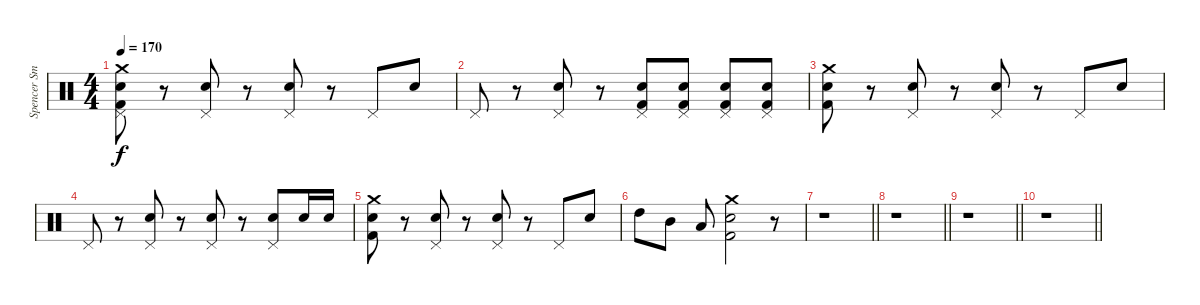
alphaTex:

\track ("Spencer Smith (Drums)" "Spencer Sm") {instrument percussion}
\staff {score}
\articulation defaults
\ts (4 4)
\tempo 170
\clef neutral
\ks c
("Crash medium (hit)" "Electric Snare (hit)" "Pedal Hi-Hat (hit)" "Kick (hit) 2").8{dy f} r.8 ("Electric Snare (hit)" "Pedal Hi-Hat (hit)").8 r.8 ("Electric Snare (hit)" "Pedal Hi-Hat (hit)").8 r.8 "Pedal Hi-Hat (hit)".8 "Electric Snare (hit)".8 |
"Pedal Hi-Hat (hit)".8 r.8 ("Electric Snare (hit)" "Pedal Hi-Hat (hit)").8 r.8 ("Electric Snare (hit)" "Pedal Hi-Hat (hit)" "Kick (hit) 2").8 ("Electric Snare (hit)" "Pedal Hi-Hat (hit)" "Kick (hit) 2").8 ("Electric Snare (hit)" "Pedal Hi-Hat (hit)" "Kick (hit) 2").8 ("Electric Snare (hit)" "Pedal Hi-Hat (hit)" "Kick (hit) 2").8 |
("Crash medium (hit)" "Electric Snare (hit)" "Kick (hit) 2").8 r.8 ("Electric Snare (hit)" "Pedal Hi-Hat (hit)").8 r.8 ("Electric Snare (hit)" "Pedal Hi-Hat (hit)").8 r.8 "Pedal Hi-Hat (hit)".8 "Electric Snare (hit)".8 |
"Pedal Hi-Hat (hit)".8 r.8 ("Electric Snare (hit)" "Pedal Hi-Hat (hit)").8 r.8 ("Electric Snare (hit)" "Pedal Hi-Hat (hit)").8 r.8 ("Electric Snare (hit)" "Pedal Hi-Hat (hit)").8 "Electric Snare (hit)".16 "Electric Snare (hit)".16 |
("Crash medium (hit)" "Electric Snare (hit)" "Kick (hit) 2").8 r.8 ("Electric Snare (hit)" "Pedal Hi-Hat (hit)").8 r.8 ("Electric Snare (hit)" "Pedal Hi-Hat (hit)").8 r.8 "Pedal Hi-Hat (hit)".8 "Electric Snare (hit)".8 |
"High Tom (hit)".8 "Mid Tom (hit)".8 "Low Tom (hit)".8 ("Crash medium (hit)" "Electric Snare (hit)" "Kick (hit) 2").2 r.8 |
\barLineRight lightlight
r.1 |
\barLineRight lightlight
r.1 |
\barLineRight lightlight
r.1 |
\barLineRight lightlight
r.1
